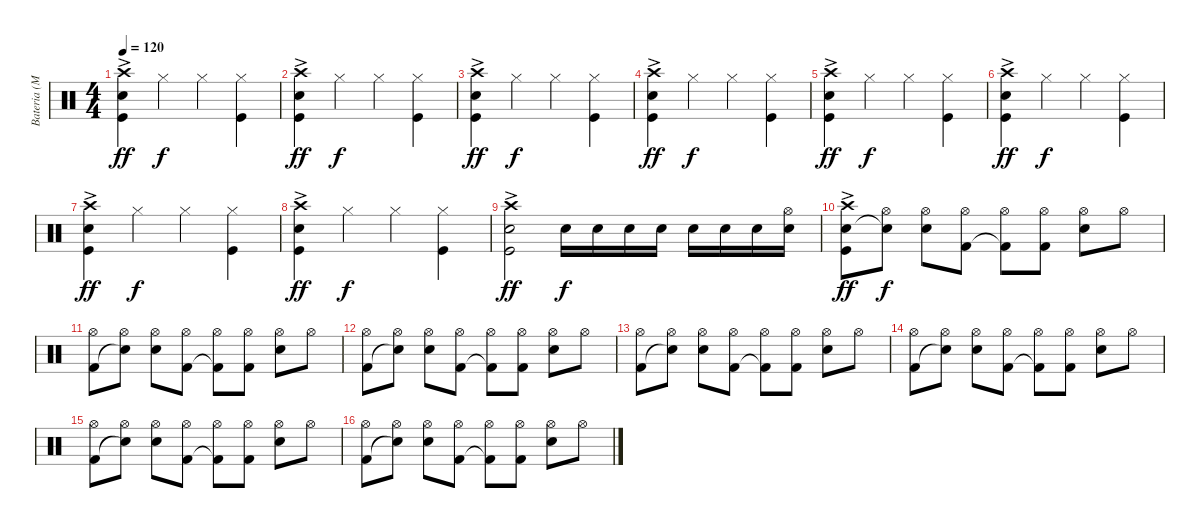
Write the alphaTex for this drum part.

\track ("Bateria (Mauricio Llona)" "Bateria (M") {instrument percussion}
\staff {score}
\articulation defaults
\ts (4 4)
\tempo 120
\clef neutral
\ks c
("Crash high (hit)" "Snare (hit) 2"{ac} "Kick (hit)").4{dy ff} "Hi-Hat (closed)".4{dy f} "Hi-Hat (closed)".4 ("Hi-Hat (closed)" "Kick (hit)").4 |
("Crash high (hit)" "Snare (hit) 2"{ac} "Kick (hit)").4{dy ff} "Hi-Hat (closed)".4{dy f} "Hi-Hat (closed)".4 ("Hi-Hat (closed)" "Kick (hit)").4 |
("Crash high (hit)" "Snare (hit) 2"{ac} "Kick (hit)").4{dy ff} "Hi-Hat (closed)".4{dy f} "Hi-Hat (closed)".4 ("Hi-Hat (closed)" "Kick (hit)").4 |
("Crash high (hit)" "Snare (hit) 2"{ac} "Kick (hit)").4{dy ff} "Hi-Hat (closed)".4{dy f} "Hi-Hat (closed)".4 ("Hi-Hat (closed)" "Kick (hit)").4 |
("Crash high (hit)" "Snare (hit) 2"{ac} "Kick (hit)").4{dy ff} "Hi-Hat (closed)".4{dy f} "Hi-Hat (closed)".4 ("Hi-Hat (closed)" "Kick (hit)").4 |
("Crash high (hit)" "Snare (hit) 2"{ac} "Kick (hit)").4{dy ff} "Hi-Hat (closed)".4{dy f} "Hi-Hat (closed)".4 ("Hi-Hat (closed)" "Kick (hit)").4 |
("Crash high (hit)" "Snare (hit) 2"{ac} "Kick (hit)").4{dy ff} "Hi-Hat (closed)".4{dy f} "Hi-Hat (closed)".4 ("Hi-Hat (closed)" "Kick (hit)").4 |
("Crash high (hit)" "Snare (hit) 2"{ac} "Kick (hit)").4{dy ff} "Hi-Hat (closed)".4{dy f} "Hi-Hat (closed)".4 ("Hi-Hat (closed)" "Kick (hit)").4 |
("Crash high (hit)" "Snare (hit) 2"{ac} "Kick (hit)").2{dy ff} "Snare (hit) 2".16{dy f} "Snare (hit) 2".16 "Snare (hit) 2".16 "Snare (hit) 2".16 "Snare (hit) 2".16 "Snare (hit) 2".16 "Snare (hit) 2".16 ("Hi-Hat (open)" "Snare (hit) 2").16 |
("Crash high (hit)" "Snare (hit) 2"{ac} "Kick (hit)"{ac}).8{dy ff} ("Hi-Hat (open)" "Snare (hit)"{t}).8{dy f} ("Hi-Hat (open)" "Electric Snare (hit)").8 ("Hi-Hat (open)" "Kick (hit) 2").8 ("Hi-Hat (open)" "Kick (hit) 2"{t}).8 ("Hi-Hat (open)" "Kick (hit) 2").8 ("Hi-Hat (open)" "Electric Snare (hit)").8 "Hi-Hat (open)".8 |
("Hi-Hat (open)" "Kick (hit) 2").8 ("Hi-Hat (open)" "Snare (hit)"{t}).8 ("Hi-Hat (open)" "Electric Snare (hit)").8 ("Hi-Hat (open)" "Kick (hit) 2").8 ("Hi-Hat (open)" "Kick (hit) 2"{t}).8 ("Hi-Hat (open)" "Kick (hit) 2").8 ("Hi-Hat (open)" "Electric Snare (hit)").8 "Hi-Hat (open)".8 |
("Hi-Hat (open)" "Kick (hit) 2").8 ("Hi-Hat (open)" "Snare (hit)"{t}).8 ("Hi-Hat (open)" "Electric Snare (hit)").8 ("Hi-Hat (open)" "Kick (hit) 2").8 ("Hi-Hat (open)" "Kick (hit) 2"{t}).8 ("Hi-Hat (open)" "Kick (hit) 2").8 ("Hi-Hat (open)" "Electric Snare (hit)").8 "Hi-Hat (open)".8 |
("Hi-Hat (open)" "Kick (hit) 2").8 ("Hi-Hat (open)" "Snare (hit)"{t}).8 ("Hi-Hat (open)" "Electric Snare (hit)").8 ("Hi-Hat (open)" "Kick (hit) 2").8 ("Hi-Hat (open)" "Kick (hit) 2"{t}).8 ("Hi-Hat (open)" "Kick (hit) 2").8 ("Hi-Hat (open)" "Electric Snare (hit)").8 "Hi-Hat (open)".8 |
("Hi-Hat (open)" "Kick (hit) 2").8 ("Hi-Hat (open)" "Snare (hit)"{t}).8 ("Hi-Hat (open)" "Electric Snare (hit)").8 ("Hi-Hat (open)" "Kick (hit) 2").8 ("Hi-Hat (open)" "Kick (hit) 2"{t}).8 ("Hi-Hat (open)" "Kick (hit) 2").8 ("Hi-Hat (open)" "Electric Snare (hit)").8 "Hi-Hat (open)".8 |
("Hi-Hat (open)" "Kick (hit) 2").8 ("Hi-Hat (open)" "Snare (hit)"{t}).8 ("Hi-Hat (open)" "Electric Snare (hit)").8 ("Hi-Hat (open)" "Kick (hit) 2").8 ("Hi-Hat (open)" "Kick (hit) 2"{t}).8 ("Hi-Hat (open)" "Kick (hit) 2").8 ("Hi-Hat (open)" "Electric Snare (hit)").8 "Hi-Hat (open)".8 |
("Hi-Hat (open)" "Kick (hit) 2").8 ("Hi-Hat (open)" "Snare (hit)"{t}).8 ("Hi-Hat (open)" "Electric Snare (hit)").8 ("Hi-Hat (open)" "Kick (hit) 2").8 ("Hi-Hat (open)" "Kick (hit) 2"{t}).8 ("Hi-Hat (open)" "Kick (hit) 2").8 ("Hi-Hat (open)" "Electric Snare (hit)").8 "Hi-Hat (open)".8
